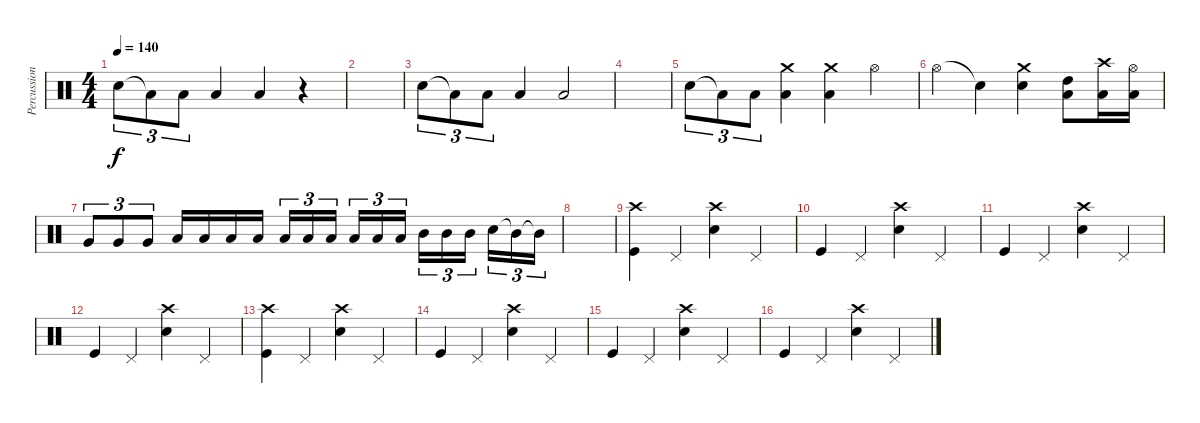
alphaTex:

\track ("Percussion" "Percussion") {instrument percussion}
\staff {score}
\articulation defaults
\ts (4 4)
\tempo 140
\clef neutral
\ks c "Snare (hit) 2".8{tu (3 2) dy f} "Low Tom (hit)"{t}.8{tu (3 2)} "Low Tom (hit)".8{tu (3 2)} "Low Tom (hit)".4 "Low Tom (hit)".4
r.4 |
|
"Snare (hit) 2".8{tu (3 2)} "Low Tom (hit)"{t}.8{tu (3 2)} "Low Tom (hit)".8{tu (3 2)} "Low Tom (hit)".4 "Low Tom (hit)".2 |
|
"Snare (hit) 2".8{tu (3 2)} "Low Tom (hit)"{t}.8{tu (3 2)} "Low Tom (hit)".8{tu (3 2)} ("Crash medium (hit)" "Low Tom (hit)").4 ("Crash medium (hit)" "Low Tom (hit)").4 "Hi-Hat (open)".4 |
"Hi-Hat (open)".4 "Snare (hit)"{t}.4 ("Crash medium (hit)" "Snare (hit) 2").4 ("High Tom (hit)" "Low Tom (hit)").8 ("Crash high (hit)" "Low Tom (hit)").16 ("Hi-Hat (open)" "Low Tom (hit)").16 |
"Very Low Tom (hit)".8{tu (3 2)} "Very Low Tom (hit)".8{tu (3 2)} "Very Low Tom (hit)".8{tu (3 2)} "Low Tom (hit)".16 "Low Tom (hit)".16 "Low Tom (hit)".16 "Low Tom (hit)".16 "Low Tom (hit)".16{tu (3 2)} "Low Tom (hit)".16{tu (3 2)} "Low Tom (hit)".16{tu (3 2) beam splitsecondary} "Low Tom (hit)".16{tu (3 2)} "Low Tom (hit)".16{tu (3 2)} "Low Tom (hit)".16{tu (3 2)} "Mid Tom (hit)".16{tu (3 2)} "Mid Tom (hit)".16{tu (3 2)} "Mid Tom (hit)".16{tu (3 2) beam splitsecondary} "Snare (hit) 2".16{tu (3 2)} "Mid Tom (hit)"{t}.16{tu (3 2)} "Mid Tom (hit)"{t}.16{tu (3 2)} |
|
("Crash high (hit)" "Kick (hit)").4 "Pedal Hi-Hat (hit)".4 ("Crash high (hit)" "Snare (hit) 2").4 "Pedal Hi-Hat (hit)".4 |
"Kick (hit)".4 "Pedal Hi-Hat (hit)".4 ("Crash high (hit)" "Snare (hit) 2").4 "Pedal Hi-Hat (hit)".4 |
"Kick (hit)".4 "Pedal Hi-Hat (hit)".4 ("Crash high (hit)" "Snare (hit) 2").4 "Pedal Hi-Hat (hit)".4 |
"Kick (hit)".4 "Pedal Hi-Hat (hit)".4 ("Crash high (hit)" "Snare (hit) 2").4 "Pedal Hi-Hat (hit)".4 |
("Crash high (hit)" "Kick (hit)").4 "Pedal Hi-Hat (hit)".4 ("Crash high (hit)" "Snare (hit) 2").4 "Pedal Hi-Hat (hit)".4 |
"Kick (hit)".4 "Pedal Hi-Hat (hit)".4 ("Crash high (hit)" "Snare (hit) 2").4 "Pedal Hi-Hat (hit)".4 |
"Kick (hit)".4 "Pedal Hi-Hat (hit)".4 ("Crash high (hit)" "Snare (hit) 2").4 "Pedal Hi-Hat (hit)".4 |
"Kick (hit)".4 "Pedal Hi-Hat (hit)".4 ("Crash high (hit)" "Snare (hit) 2").4 "Pedal Hi-Hat (hit)".4
